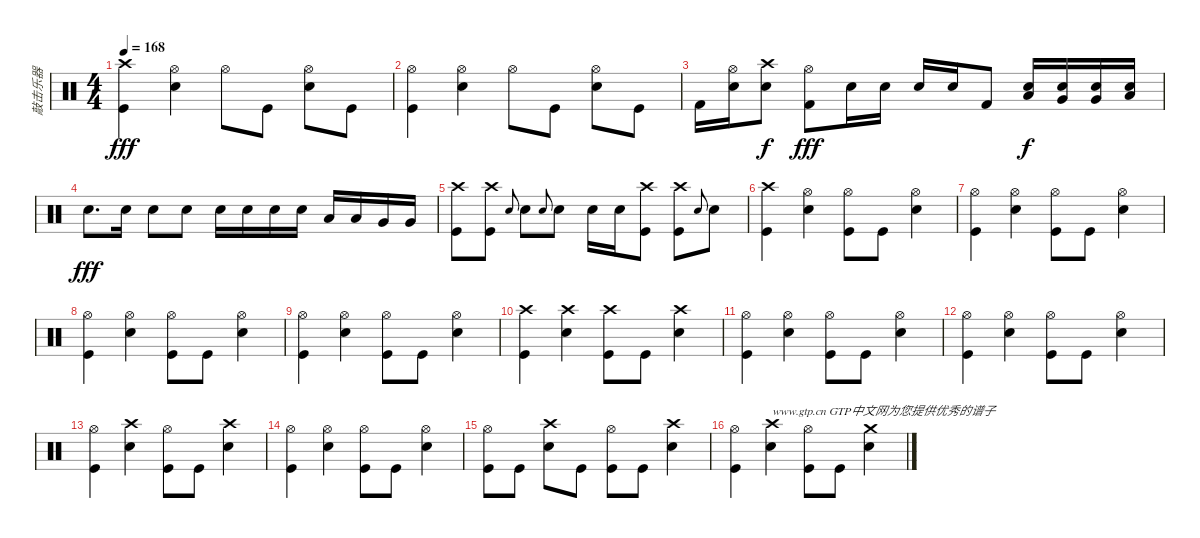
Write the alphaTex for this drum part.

\track ("敲击乐器" "敲击乐器") {instrument percussion}
\staff {score}
\articulation defaults
\ts (4 4)
\tempo 168
\clef neutral
\ks c
("Crash high (hit)" "Kick (hit)").4{dy fff} ("Hi-Hat (open)" "Electric Snare (hit)").4 "Hi-Hat (open)".8 "Kick (hit)".8 ("Hi-Hat (open)" "Electric Snare (hit)").8 "Kick (hit)".8 |
("Hi-Hat (open)" "Kick (hit)").4 ("Hi-Hat (open)" "Electric Snare (hit)").4 "Hi-Hat (open)".8 "Kick (hit)".8 ("Hi-Hat (open)" "Electric Snare (hit)").8 "Kick (hit)".8 |
"Kick (hit) 2".16 ("Hi-Hat (open)" "Electric Snare (hit)").16 ("Electric Snare (hit)" "Crash high (hit)").8{dy f} ("Hi-Hat (open)" "Kick (hit) 2").8{dy fff} "Electric Snare (hit)".16 "Electric Snare (hit)".16 "Electric Snare (hit)".16 "Electric Snare (hit)".16 "Kick (hit) 2".8 ("Electric Snare (hit)" "Low Tom (hit)").16{dy f} ("Electric Snare (hit)" "Very Low Tom (hit)").16 ("Electric Snare (hit)" "Very Low Tom (hit)").16 ("Electric Snare (hit)" "Low Floor Tom (hit)").16 |
"Electric Snare (hit)".8{d dy fff} "Electric Snare (hit)".16 "Electric Snare (hit)".8 "Electric Snare (hit)".8 "Electric Snare (hit)".16 "Electric Snare (hit)".16 "Electric Snare (hit)".16 "Electric Snare (hit)".16 "Low Tom (hit)".16 "Low Tom (hit)".16 "Very Low Tom (hit)".16 "Very Low Tom (hit)".16 |
("Crash high (hit)" "Kick (hit)").8 ("Crash high (hit)" "Kick (hit)").8 "Electric Snare (hit)".8{gr onbeat} "Electric Snare (hit)".8 "Electric Snare (hit)".8{gr onbeat} "Electric Snare (hit)".8 "Electric Snare (hit)".16 "Electric Snare (hit)".16 ("Crash high (hit)" "Kick (hit)").8 ("Crash high (hit)" "Kick (hit)").8 "Electric Snare (hit)".8{gr onbeat} "Electric Snare (hit)".8 |
("Crash high (hit)" "Kick (hit)").4 ("Hi-Hat (open)" "Electric Snare (hit)").4 ("Hi-Hat (open)" "Kick (hit)").8 "Kick (hit)".8 ("Hi-Hat (open)" "Electric Snare (hit)").4 |
("Hi-Hat (open)" "Kick (hit)").4 ("Hi-Hat (open)" "Electric Snare (hit)").4 ("Hi-Hat (open)" "Kick (hit)").8 "Kick (hit)".8 ("Hi-Hat (open)" "Electric Snare (hit)").4 |
("Hi-Hat (open)" "Kick (hit)").4 ("Hi-Hat (open)" "Electric Snare (hit)").4 ("Hi-Hat (open)" "Kick (hit)").8 "Kick (hit)".8 ("Hi-Hat (open)" "Electric Snare (hit)").4 |
("Hi-Hat (open)" "Kick (hit)").4 ("Hi-Hat (open)" "Electric Snare (hit)").4 ("Hi-Hat (open)" "Kick (hit)").8 "Kick (hit)".8 ("Hi-Hat (open)" "Electric Snare (hit)").4 |
("Crash high (hit)" "Kick (hit)").4 ("Crash high (hit)" "Electric Snare (hit)").4 ("Crash high (hit)" "Kick (hit)").8 "Kick (hit)".8 ("Crash high (hit)" "Electric Snare (hit)").4 |
("Hi-Hat (open)" "Kick (hit)").4 ("Hi-Hat (open)" "Electric Snare (hit)").4 ("Hi-Hat (open)" "Kick (hit)").8 "Kick (hit)".8 ("Hi-Hat (open)" "Electric Snare (hit)").4 |
("Hi-Hat (open)" "Kick (hit)").4 ("Hi-Hat (open)" "Electric Snare (hit)").4 ("Hi-Hat (open)" "Kick (hit)").8 "Kick (hit)".8 ("Hi-Hat (open)" "Electric Snare (hit)").4 |
("Hi-Hat (open)" "Kick (hit)").4 ("Crash high (hit)" "Electric Snare (hit)").4 ("Hi-Hat (open)" "Kick (hit)").8 "Kick (hit)".8 ("Crash high (hit)" "Electric Snare (hit)").4 |
("Hi-Hat (open)" "Kick (hit)").4 ("Hi-Hat (open)" "Electric Snare (hit)").4 ("Hi-Hat (open)" "Kick (hit)").8 "Kick (hit)".8 ("Hi-Hat (open)" "Electric Snare (hit)").4 |
("Hi-Hat (open)" "Kick (hit)").8 "Kick (hit)".8 ("Crash high (hit)" "Electric Snare (hit)").8 "Kick (hit)".8 ("Hi-Hat (open)" "Kick (hit)").8 "Kick (hit)".8 ("Crash high (hit)" "Electric Snare (hit)").4 |
("Hi-Hat (open)" "Kick (hit)").4 ("Crash high (hit)" "Electric Snare (hit)").4{txt "www.gtp.cn GTP中文网为您提供优秀的谱子"} ("Hi-Hat (open)" "Kick (hit)").8 "Kick (hit)".8 ("Crash medium (hit)" "Electric Snare (hit)").4
